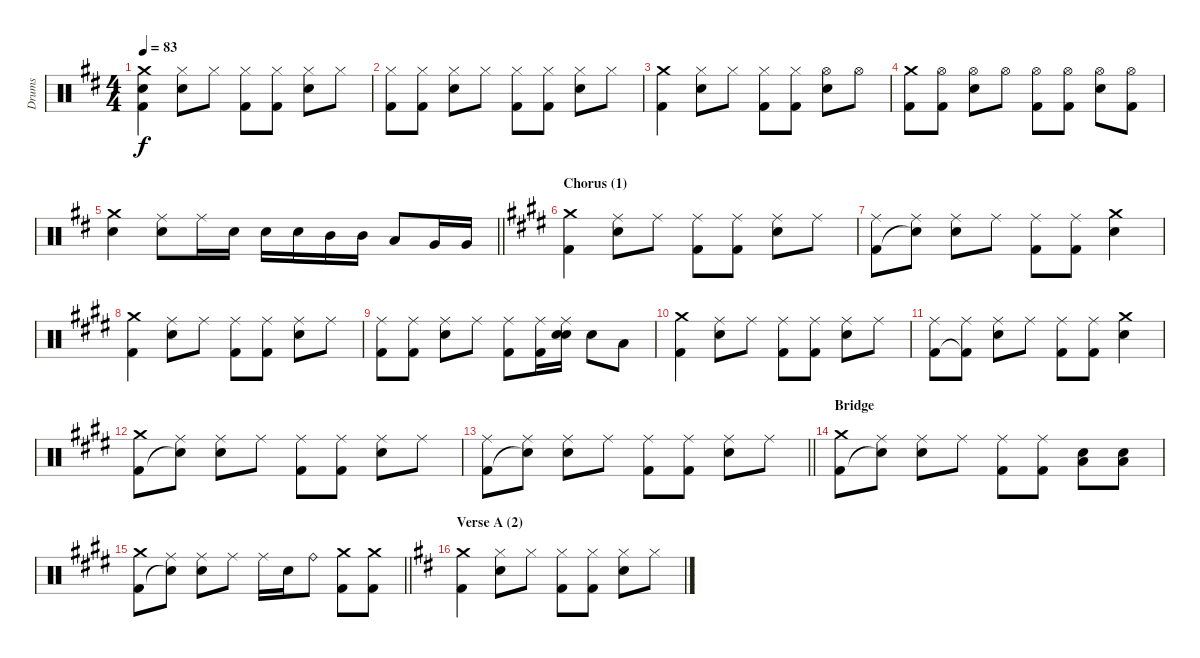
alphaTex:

\track ("Drums" "Drums") {instrument percussion}
\staff {score}
\articulation defaults
\ts (4 4)
\tempo 83
\clef neutral
\ks d
("Crash medium (hit)" "Electric Snare (hit)" "Kick (hit) 2").4{dy f} ("Hi-Hat (closed)" "Electric Snare (hit)").8 "Hi-Hat (closed)".8 ("Hi-Hat (closed)" "Kick (hit) 2").8 ("Hi-Hat (closed)" "Kick (hit) 2").8 ("Hi-Hat (closed)" "Electric Snare (hit)").8 "Hi-Hat (closed)".8 |
("Hi-Hat (closed)" "Kick (hit) 2").8 ("Hi-Hat (closed)" "Kick (hit) 2").8 ("Hi-Hat (closed)" "Electric Snare (hit)").8 "Hi-Hat (closed)".8 ("Hi-Hat (closed)" "Kick (hit) 2").8 ("Hi-Hat (closed)" "Kick (hit) 2").8 ("Hi-Hat (closed)" "Electric Snare (hit)").8 "Hi-Hat (closed)".8 |
("Crash medium (hit)" "Kick (hit) 2").4 ("Hi-Hat (closed)" "Electric Snare (hit)").8 "Hi-Hat (closed)".8 ("Hi-Hat (closed)" "Kick (hit) 2").8 ("Hi-Hat (closed)" "Kick (hit) 2").8 ("Hi-Hat (open)" "Electric Snare (hit)").8 "Hi-Hat (open)".8 |
("Crash medium (hit)" "Kick (hit) 2").8 ("Hi-Hat (open)" "Kick (hit) 2").8 ("Hi-Hat (open)" "Electric Snare (hit)").8 "Hi-Hat (open)".8 ("Hi-Hat (open)" "Kick (hit) 2").8 ("Hi-Hat (open)" "Kick (hit) 2").8 ("Hi-Hat (open)" "Electric Snare (hit)").8 ("Hi-Hat (open)" "Kick (hit) 2").8 |
\barLineRight lightlight
("Crash medium (hit)" "Electric Snare (hit)").4 ("Ride (middle)" "Electric Snare (hit)").8 "Ride (middle)".16 "Electric Snare (hit)".16 "Electric Snare (hit)".16 "Electric Snare (hit)".16 "Mid Tom (hit)".16 "Mid Tom (hit)".16 "Low Tom (hit)".8 "Very Low Tom (hit)".16 "Very Low Tom (hit)".16 |
\section ("" "Chorus (1)")
\ks e
("Crash medium (hit)" "Kick (hit) 2").4 ("Ride (middle)" "Electric Snare (hit)").8 "Ride (middle)".8 ("Ride (middle)" "Kick (hit) 2").8 ("Ride (middle)" "Kick (hit) 2").8 ("Ride (middle)" "Electric Snare (hit)").8 "Ride (middle)".8 |
("Ride (middle)" "Kick (hit) 2").8 ("Ride (middle)" "Snare (hit)"{t}).8 ("Ride (middle)" "Electric Snare (hit)").8 "Ride (middle)".8 ("Ride (middle)" "Kick (hit) 2").8 ("Ride (middle)" "Kick (hit) 2").8 ("Crash medium (hit)" "Electric Snare (hit)").4 |
("Crash medium (hit)" "Kick (hit) 2").4 ("Ride (middle)" "Electric Snare (hit)").8 "Ride (middle)".8 ("Ride (middle)" "Kick (hit) 2").8 ("Ride (middle)" "Kick (hit) 2").8 ("Ride (middle)" "Electric Snare (hit)").8 "Ride (middle)".8 |
("Ride (middle)" "Kick (hit) 2").8 ("Ride (middle)" "Kick (hit) 2").8 ("Ride (middle)" "Electric Snare (hit)").8 "Ride (middle)".8 ("Ride (middle)" "Kick (hit) 2").8 ("Ride (middle)" "Kick (hit) 2").16 ("Ride (middle)" "Electric Snare (hit)" "Snare (hit)").16 "Electric Snare (hit)".8 "Low Floor Tom (hit)".8 |
("Crash medium (hit)" "Kick (hit) 2").4 ("Ride (middle)" "Electric Snare (hit)").8 "Ride (middle)".8 ("Ride (middle)" "Kick (hit) 2").8 ("Ride (middle)" "Kick (hit) 2").8 ("Ride (middle)" "Electric Snare (hit)").8 "Ride (middle)".8 |
("Ride (middle)" "Kick (hit) 2").8 ("Ride (middle)" "Kick (hit) 2"{t}).8 ("Ride (middle)" "Electric Snare (hit)").8 "Ride (middle)".8 ("Ride (middle)" "Kick (hit) 2").8 ("Ride (middle)" "Kick (hit) 2").8 ("Crash medium (hit)" "Electric Snare (hit)").4 |
("Crash medium (hit)" "Kick (hit) 2").8 ("Ride (middle)" "Snare (hit)"{t}).8 ("Ride (middle)" "Electric Snare (hit)").8 "Ride (middle)".8 ("Ride (middle)" "Kick (hit) 2").8 ("Ride (middle)" "Kick (hit) 2").8 ("Ride (middle)" "Electric Snare (hit)").8 "Ride (middle)".8 |
\barLineRight lightlight
("Ride (middle)" "Kick (hit) 2").8 ("Ride (middle)" "Snare (hit)"{t}).8 ("Ride (middle)" "Electric Snare (hit)").8 "Ride (middle)".8 ("Ride (middle)" "Kick (hit) 2").8 ("Ride (middle)" "Kick (hit) 2").8 ("Ride (middle)" "Electric Snare (hit)").8 "Ride (middle)".8 |
\section ("" "Bridge")
("Crash medium (hit)" "Kick (hit) 2").8 ("Ride (middle)" "Snare (hit)"{t}).8 ("Ride (middle)" "Electric Snare (hit)").8 "Ride (middle)".8 ("Ride (middle)" "Kick (hit) 2").8 ("Ride (middle)" "Kick (hit) 2").8 ("Electric Snare (hit)" "Low Floor Tom (hit)").8 ("Electric Snare (hit)" "Low Floor Tom (hit)").8 |
\barLineRight lightlight
("Crash medium (hit)" "Kick (hit) 2").8 ("Ride (middle)" "Snare (hit)"{t}).8 ("Ride (middle)" "Electric Snare (hit)").8 "Ride (middle)".8 "Ride (middle)".16 "Electric Snare (hit)".16 "Ride (bell)".8 ("Crash medium (hit)" "Kick (hit) 2").8 ("Crash medium (hit)" "Kick (hit) 2").8 |
\section ("" "Verse A (2)")
\ks d
("Crash medium (hit)" "Kick (hit) 2").4 ("Hi-Hat (closed)" "Electric Snare (hit)").8 "Hi-Hat (closed)".8 ("Hi-Hat (closed)" "Kick (hit) 2").8 ("Hi-Hat (closed)" "Kick (hit) 2").8 ("Hi-Hat (closed)" "Electric Snare (hit)").8 "Hi-Hat (closed)".8
